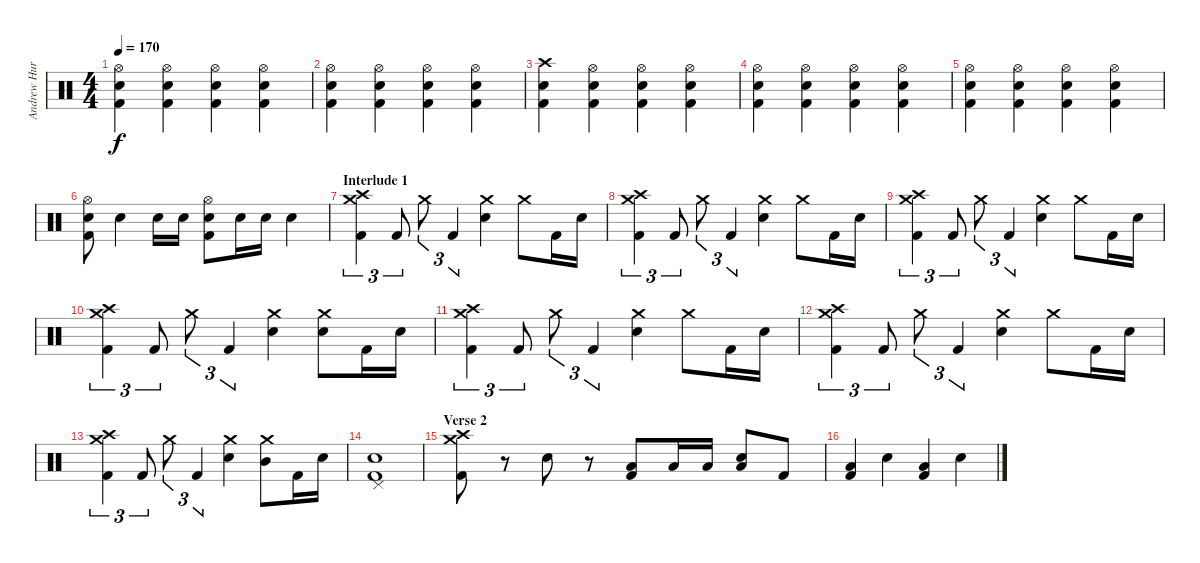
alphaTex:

\track ("Andrew Hurley (Drums)" "Andrew Hur") {instrument percussion}
\staff {score}
\articulation defaults
\ts (4 4)
\tempo 170
\clef neutral
\ks c
("Hi-Hat (open)" "Electric Snare (hit)" "Kick (hit) 2").4{dy f} ("Hi-Hat (open)" "Electric Snare (hit)" "Kick (hit) 2").4 ("Hi-Hat (open)" "Electric Snare (hit)" "Kick (hit) 2").4 ("Hi-Hat (open)" "Electric Snare (hit)" "Kick (hit) 2").4 |
("Hi-Hat (open)" "Electric Snare (hit)" "Kick (hit) 2").4 ("Hi-Hat (open)" "Electric Snare (hit)" "Kick (hit) 2").4 ("Hi-Hat (open)" "Electric Snare (hit)" "Kick (hit) 2").4 ("Hi-Hat (open)" "Electric Snare (hit)" "Kick (hit) 2").4 |
("Crash high (hit)" "Electric Snare (hit)" "Kick (hit) 2").4 ("Hi-Hat (open)" "Electric Snare (hit)" "Kick (hit) 2").4 ("Hi-Hat (open)" "Electric Snare (hit)" "Kick (hit) 2").4 ("Hi-Hat (open)" "Electric Snare (hit)" "Kick (hit) 2").4 |
("Hi-Hat (open)" "Electric Snare (hit)" "Kick (hit) 2").4 ("Hi-Hat (open)" "Electric Snare (hit)" "Kick (hit) 2").4 ("Hi-Hat (open)" "Electric Snare (hit)" "Kick (hit) 2").4 ("Hi-Hat (open)" "Electric Snare (hit)" "Kick (hit) 2").4 |
("Hi-Hat (open)" "Electric Snare (hit)" "Kick (hit) 2").4 ("Hi-Hat (open)" "Electric Snare (hit)" "Kick (hit) 2").4 ("Hi-Hat (open)" "Electric Snare (hit)" "Kick (hit) 2").4 ("Hi-Hat (open)" "Electric Snare (hit)" "Kick (hit) 2").4 |
("Hi-Hat (open)" "Electric Snare (hit)" "Kick (hit) 2").8 "Electric Snare (hit)".4 "Electric Snare (hit)".16 "Electric Snare (hit)".16 ("Hi-Hat (open)" "Electric Snare (hit)" "Kick (hit) 2").8 "Electric Snare (hit)".16 "Electric Snare (hit)".16 "Electric Snare (hit)".4 |
\section ("" "Interlude 1")
("Crash medium (hit)" "Crash high (hit)" "Kick (hit) 2").4{tu (3 2)} "Kick (hit) 2".8{tu (3 2)} "Crash medium (hit)".8{tu (3 2)} "Kick (hit) 2".4{tu (3 2)} ("Crash medium (hit)" "Electric Snare (hit)").4 "Crash medium (hit)".8 "Kick (hit) 2".16 "Electric Snare (hit)".16 |
("Crash medium (hit)" "Crash high (hit)" "Kick (hit) 2").4{tu (3 2)} "Kick (hit) 2".8{tu (3 2)} "Crash medium (hit)".8{tu (3 2)} "Kick (hit) 2".4{tu (3 2)} ("Crash medium (hit)" "Electric Snare (hit)").4 "Crash medium (hit)".8 "Kick (hit) 2".16 "Electric Snare (hit)".16 |
("Crash medium (hit)" "Crash high (hit)" "Kick (hit) 2").4{tu (3 2)} "Kick (hit) 2".8{tu (3 2)} "Crash medium (hit)".8{tu (3 2)} "Kick (hit) 2".4{tu (3 2)} ("Crash medium (hit)" "Electric Snare (hit)").4 "Crash medium (hit)".8 "Kick (hit) 2".16 "Electric Snare (hit)".16 |
("Crash medium (hit)" "Crash high (hit)" "Kick (hit) 2").4{tu (3 2)} "Kick (hit) 2".8{tu (3 2)} "Crash medium (hit)".8{tu (3 2)} "Kick (hit) 2".4{tu (3 2)} ("Crash medium (hit)" "Electric Snare (hit)").4 ("Crash medium (hit)" "Electric Snare (hit)").8 "Kick (hit) 2".16 "Electric Snare (hit)".16 |
("Crash medium (hit)" "Crash high (hit)" "Kick (hit) 2").4{tu (3 2)} "Kick (hit) 2".8{tu (3 2)} "Crash medium (hit)".8{tu (3 2)} "Kick (hit) 2".4{tu (3 2)} ("Crash medium (hit)" "Electric Snare (hit)").4 "Crash medium (hit)".8 "Kick (hit) 2".16 "Electric Snare (hit)".16 |
("Crash medium (hit)" "Crash high (hit)" "Kick (hit) 2").4{tu (3 2)} "Kick (hit) 2".8{tu (3 2)} "Crash medium (hit)".8{tu (3 2)} "Kick (hit) 2".4{tu (3 2)} ("Crash medium (hit)" "Electric Snare (hit)").4 "Crash medium (hit)".8 "Kick (hit) 2".16 "Electric Snare (hit)".16 |
("Crash medium (hit)" "Crash high (hit)" "Kick (hit) 2").4{tu (3 2)} "Kick (hit) 2".8{tu (3 2)} "Crash medium (hit)".8{tu (3 2)} "Kick (hit) 2".4{tu (3 2)} ("Crash medium (hit)" "Electric Snare (hit)").4 ("Crash medium (hit)" "Mid Tom (hit)").8 "Kick (hit) 2".16 "Electric Snare (hit)".16 |
("Pedal Hi-Hat (hit)" "Electric Snare (hit)" "Kick (hit) 2").1 |
\section ("" "Verse 2")
("Crash medium (hit)" "Crash high (hit)" "Kick (hit) 2").8 r.8 "Electric Snare (hit)".8 r.8 ("Kick (hit) 2" "Low Floor Tom (hit)").8 "Low Floor Tom (hit)".16 "Low Floor Tom (hit)".16 ("Electric Snare (hit)" "Low Floor Tom (hit)").8 "Kick (hit) 2".8 |
("Kick (hit) 2" "Low Floor Tom (hit)").4 "Electric Snare (hit)".4 ("Kick (hit) 2" "Low Floor Tom (hit)").4 "Electric Snare (hit)".4
